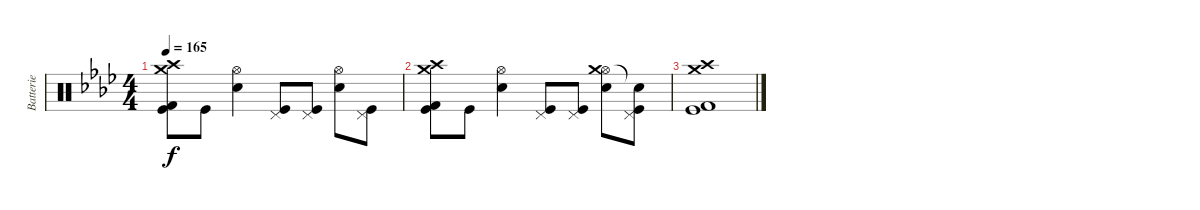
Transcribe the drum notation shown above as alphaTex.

\track ("Batterie" "Batterie") {instrument percussion}
\staff {score}
\articulation defaults
\ts (4 4)
\tempo 165
\clef neutral
\ks ab
("Kick (hit)" "Kick (hit) 2" "Crash high (hit)" "Crash medium (hit)").8{dy f} "Kick (hit)".8 ("Snare (hit) 2" "Hi-Hat (open)").4 ("Kick (hit)" "Pedal Hi-Hat (hit)").8 ("Kick (hit)" "Pedal Hi-Hat (hit)").8 ("Snare (hit) 2" "Hi-Hat (open)").8 ("Kick (hit)" "Pedal Hi-Hat (hit)").8 |
("Kick (hit)" "Kick (hit) 2" "Crash high (hit)" "Crash medium (hit)").8 "Kick (hit)".8 ("Snare (hit) 2" "Hi-Hat (open)").4 ("Kick (hit)" "Pedal Hi-Hat (hit)").8 ("Kick (hit)" "Pedal Hi-Hat (hit)").8 ("Snare (hit) 2" "Hi-Hat (open)" "Crash medium (hit)").8 ("Kick (hit)" "Pedal Hi-Hat (hit)" "Snare (hit)"{t}).8 |
("Kick (hit)" "Kick (hit) 2" "Crash medium (hit)" "Crash high (hit)").1
